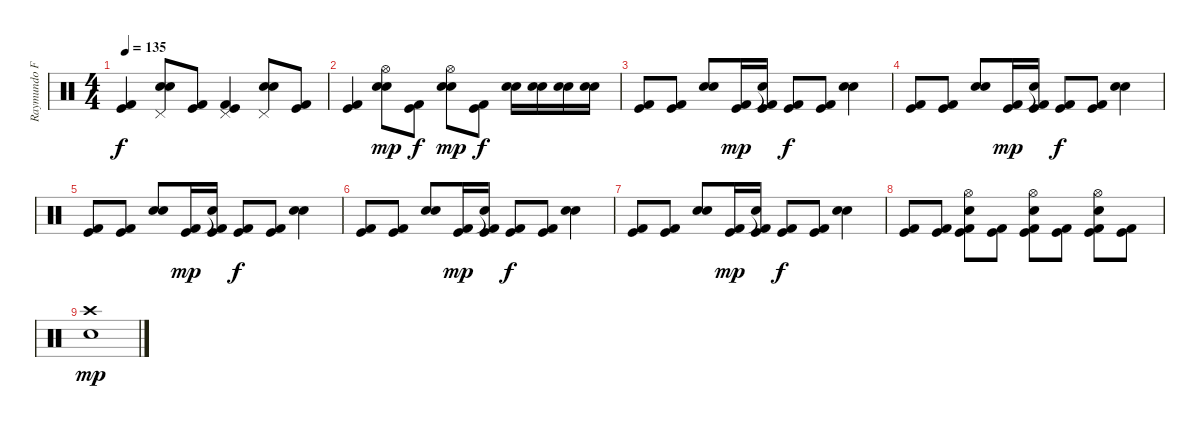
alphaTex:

\track ("Raymundo Fajardo" "Raymundo F") {instrument percussion}
\staff {score}
\articulation defaults
\ts (4 4)
\tempo 135
\clef neutral
\ks c
("Kick (hit)" "Kick (hit) 2").4{dy f} ("Electric Snare (hit)" "Snare (hit) 2" "Pedal Hi-Hat (hit)").8 ("Kick (hit) 2" "Kick (hit)").8 ("Kick (hit) 2" "Kick (hit)" "Pedal Hi-Hat (hit)").4 ("Electric Snare (hit)" "Snare (hit) 2" "Pedal Hi-Hat (hit)").8 ("Kick (hit) 2" "Kick (hit)").8 |
("Kick (hit) 2" "Kick (hit)").4 ("Electric Snare (hit)" "Snare (hit) 2" "Hi-Hat (open)").8{dy mp} ("Kick (hit)" "Kick (hit) 2").8{dy f} ("Electric Snare (hit)" "Snare (hit) 2" "Hi-Hat (open)").8{dy mp} ("Kick (hit)" "Kick (hit) 2").8{dy f} ("Electric Snare (hit)" "Snare (hit) 2").16 ("Electric Snare (hit)" "Snare (hit) 2").16 ("Electric Snare (hit)" "Snare (hit) 2").16 ("Electric Snare (hit)" "Snare (hit) 2").16 |
("Kick (hit) 2" "Kick (hit)").8 ("Kick (hit) 2" "Kick (hit)").8 ("Electric Snare (hit)" "Snare (hit) 2").8 ("Kick (hit) 2" "Kick (hit)").16{dy mp} ("Snare (hit) 2"{t} "Kick (hit) 2" "Kick (hit)").16 ("Kick (hit)" "Kick (hit) 2").8{dy f} ("Kick (hit)" "Kick (hit) 2").8 ("Electric Snare (hit)" "Snare (hit) 2").4 |
("Kick (hit) 2" "Kick (hit)").8 ("Kick (hit) 2" "Kick (hit)").8 ("Electric Snare (hit)" "Snare (hit) 2").8 ("Kick (hit) 2" "Kick (hit)").16{dy mp} ("Snare (hit) 2"{t} "Kick (hit) 2" "Kick (hit)").16 ("Kick (hit)" "Kick (hit) 2").8{dy f} ("Kick (hit)" "Kick (hit) 2").8 ("Electric Snare (hit)" "Snare (hit) 2").4 |
("Kick (hit) 2" "Kick (hit)").8 ("Kick (hit) 2" "Kick (hit)").8 ("Electric Snare (hit)" "Snare (hit) 2").8 ("Kick (hit) 2" "Kick (hit)").16{dy mp} ("Snare (hit) 2"{t} "Kick (hit) 2" "Kick (hit)").16 ("Kick (hit)" "Kick (hit) 2").8{dy f} ("Kick (hit)" "Kick (hit) 2").8 ("Electric Snare (hit)" "Snare (hit) 2").4 |
("Kick (hit) 2" "Kick (hit)").8 ("Kick (hit) 2" "Kick (hit)").8 ("Electric Snare (hit)" "Snare (hit) 2").8 ("Kick (hit) 2" "Kick (hit)").16{dy mp} ("Snare (hit) 2"{t} "Kick (hit) 2" "Kick (hit)").16 ("Kick (hit)" "Kick (hit) 2").8{dy f} ("Kick (hit)" "Kick (hit) 2").8 ("Electric Snare (hit)" "Snare (hit) 2").4 |
("Kick (hit) 2" "Kick (hit)").8 ("Kick (hit) 2" "Kick (hit)").8 ("Electric Snare (hit)" "Snare (hit) 2").8 ("Kick (hit) 2" "Kick (hit)").16{dy mp} ("Snare (hit) 2"{t} "Kick (hit) 2" "Kick (hit)").16 ("Kick (hit)" "Kick (hit) 2").8{dy f} ("Kick (hit)" "Kick (hit) 2").8 ("Electric Snare (hit)" "Snare (hit) 2").4 |
("Kick (hit)" "Kick (hit) 2").8 ("Kick (hit)" "Kick (hit) 2").8 ("Kick (hit)" "Kick (hit) 2" "Electric Snare (hit)" "Hi-Hat (open)").8 ("Kick (hit)" "Kick (hit) 2").8 ("Kick (hit)" "Kick (hit) 2" "Electric Snare (hit)" "Hi-Hat (open)").8 ("Kick (hit)" "Kick (hit) 2").8 ("Kick (hit)" "Kick (hit) 2" "Electric Snare (hit)" "Hi-Hat (open)").8 ("Kick (hit)" "Kick (hit) 2").8 |
("Crash high (hit)" "Electric Snare (hit)").1{dy mp}
